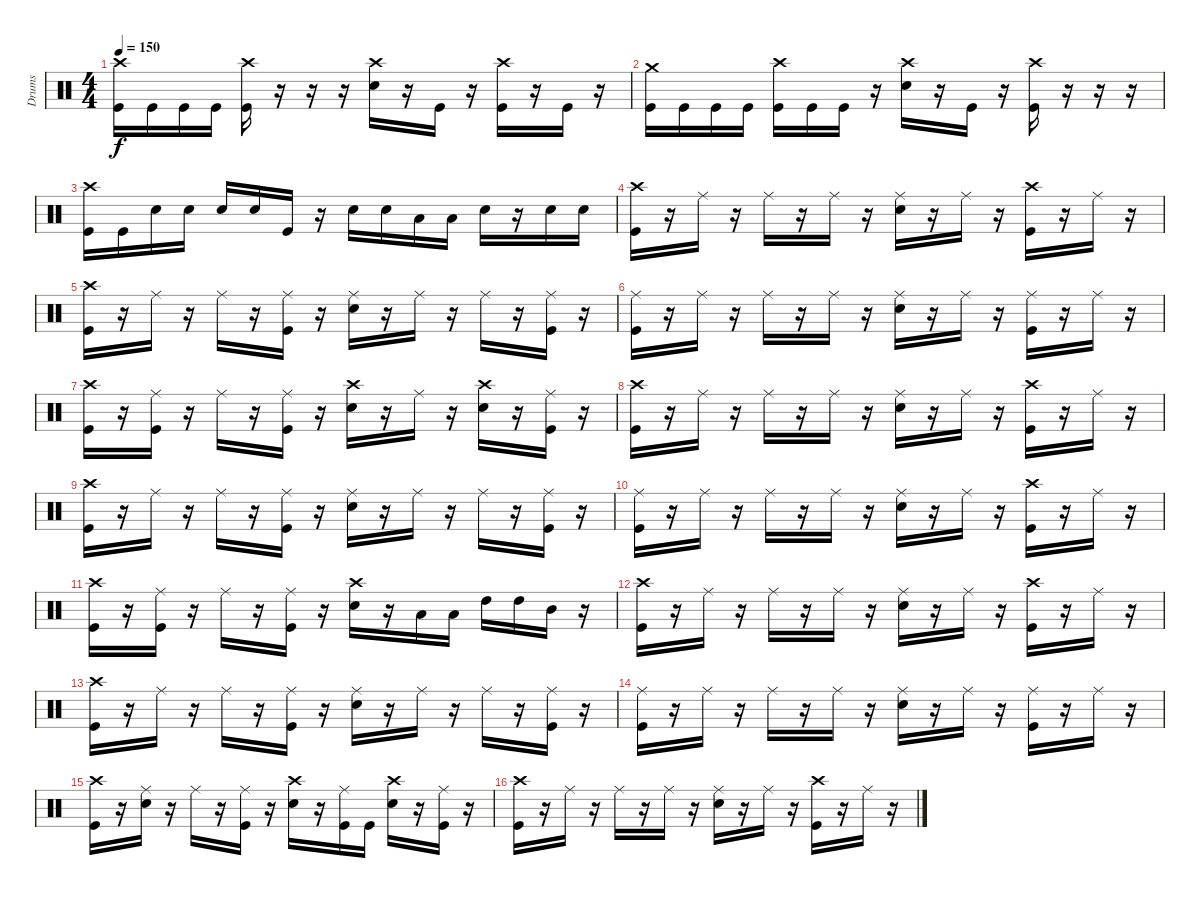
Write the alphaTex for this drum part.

\track ("Drums" "Drums") {instrument percussion}
\staff {score}
\articulation defaults
\ts (4 4)
\tempo 150
\clef neutral
\ks c
("Crash high (hit)" "Kick (hit)").16{dy f} "Kick (hit)".16 "Kick (hit)".16 "Kick (hit)".16 ("Crash high (hit)" "Kick (hit)").16 r.16 r.16 r.16 ("Crash high (hit)" "Electric Snare (hit)").16 r.16 "Kick (hit)".16 r.16 ("Crash high (hit)" "Kick (hit)").16 r.16 "Kick (hit)".16 r.16 |
("Crash medium (hit)" "Kick (hit)").16 "Kick (hit)".16 "Kick (hit)".16 "Kick (hit)".16 ("Crash high (hit)" "Kick (hit)").16 "Kick (hit)".16 "Kick (hit)".16 r.16 ("Crash high (hit)" "Electric Snare (hit)").16 r.16 "Kick (hit)".16 r.16 ("Crash high (hit)" "Kick (hit)").16 r.16 r.16 r.16 |
("Crash high (hit)" "Kick (hit)").16 "Kick (hit)".16 "Electric Snare (hit)".16 "Electric Snare (hit)".16 "Electric Snare (hit)".16 "Electric Snare (hit)".16 "Kick (hit)".16 r.16 "Electric Snare (hit)".16 "Electric Snare (hit)".16 "Low Tom (hit)".16 "Low Tom (hit)".16 "Electric Snare (hit)".16 r.16 "Electric Snare (hit)".16 "Electric Snare (hit)".16 |
("Crash high (hit)" "Kick (hit)").16 r.16 "Ride (middle)".16 r.16 "Ride (middle)".16 r.16 "Ride (middle)".16 r.16 ("Ride (middle)" "Electric Snare (hit)").16 r.16 "Ride (middle)".16 r.16 ("Crash high (hit)" "Kick (hit)").16 r.16 "Ride (middle)".16 r.16 |
("Crash high (hit)" "Kick (hit)").16 r.16 "Ride (middle)".16 r.16 "Ride (middle)".16 r.16 ("Ride (middle)" "Kick (hit)").16 r.16 ("Ride (middle)" "Electric Snare (hit)").16 r.16 "Ride (middle)".16 r.16 "Ride (middle)".16 r.16 ("Ride (middle)" "Kick (hit)").16 r.16 |
("Ride (middle)" "Kick (hit)").16 r.16 "Ride (middle)".16 r.16 "Ride (middle)".16 r.16 "Ride (middle)".16 r.16 ("Ride (middle)" "Electric Snare (hit)").16 r.16 "Ride (middle)".16 r.16 ("Ride (middle)" "Kick (hit)").16 r.16 "Ride (middle)".16 r.16 |
("Crash high (hit)" "Kick (hit)").16 r.16 ("Ride (middle)" "Kick (hit)").16 r.16 "Ride (middle)".16 r.16 ("Ride (middle)" "Kick (hit)").16 r.16 ("Crash high (hit)" "Electric Snare (hit)").16 r.16 "Ride (middle)".16 r.16 ("Crash high (hit)" "Electric Snare (hit)").16 r.16 ("Ride (middle)" "Kick (hit)").16 r.16 |
("Crash high (hit)" "Kick (hit)").16 r.16 "Ride (middle)".16 r.16 "Ride (middle)".16 r.16 "Ride (middle)".16 r.16 ("Ride (middle)" "Electric Snare (hit)").16 r.16 "Ride (middle)".16 r.16 ("Crash high (hit)" "Kick (hit)").16 r.16 "Ride (middle)".16 r.16 |
("Crash high (hit)" "Kick (hit)").16 r.16 "Ride (middle)".16 r.16 "Ride (middle)".16 r.16 ("Ride (middle)" "Kick (hit)").16 r.16 ("Ride (middle)" "Electric Snare (hit)").16 r.16 "Ride (middle)".16 r.16 "Ride (middle)".16 r.16 ("Ride (middle)" "Kick (hit)").16 r.16 |
("Ride (middle)" "Kick (hit)").16 r.16 "Ride (middle)".16 r.16 "Ride (middle)".16 r.16 "Ride (middle)".16 r.16 ("Ride (middle)" "Electric Snare (hit)").16 r.16 "Ride (middle)".16 r.16 ("Crash high (hit)" "Kick (hit)").16 r.16 "Ride (middle)".16 r.16 |
("Crash high (hit)" "Kick (hit)").16 r.16 ("Ride (middle)" "Kick (hit)").16 r.16 "Ride (middle)".16 r.16 ("Ride (middle)" "Kick (hit)").16 r.16 ("Crash high (hit)" "Electric Snare (hit)").16 r.16 "Low Tom (hit)".16 "Low Tom (hit)".16 "High Tom (hit)".16 "High Tom (hit)".16 "Mid Tom (hit)".16 r.16 |
("Crash high (hit)" "Kick (hit)").16 r.16 "Ride (middle)".16 r.16 "Ride (middle)".16 r.16 "Ride (middle)".16 r.16 ("Ride (middle)" "Electric Snare (hit)").16 r.16 "Ride (middle)".16 r.16 ("Crash high (hit)" "Kick (hit)").16 r.16 "Ride (middle)".16 r.16 |
("Crash high (hit)" "Kick (hit)").16 r.16 "Ride (middle)".16 r.16 "Ride (middle)".16 r.16 ("Ride (middle)" "Kick (hit)").16 r.16 ("Ride (middle)" "Electric Snare (hit)").16 r.16 "Ride (middle)".16 r.16 "Ride (middle)".16 r.16 ("Ride (middle)" "Kick (hit)").16 r.16 |
("Ride (middle)" "Kick (hit)").16 r.16 "Ride (middle)".16 r.16 "Ride (middle)".16 r.16 "Ride (middle)".16 r.16 ("Ride (middle)" "Electric Snare (hit)").16 r.16 "Ride (middle)".16 r.16 ("Ride (middle)" "Kick (hit)").16 r.16 "Ride (middle)".16 r.16 |
("Crash high (hit)" "Kick (hit)").16 r.16 ("Ride (middle)" "Electric Snare (hit)").16 r.16 "Ride (middle)".16 r.16 ("Ride (middle)" "Kick (hit)").16 r.16 ("Crash high (hit)" "Electric Snare (hit)").16 r.16 ("Ride (middle)" "Kick (hit)").16 "Kick (hit)".16 ("Crash high (hit)" "Electric Snare (hit)").16 r.16 ("Ride (middle)" "Kick (hit)").16 r.16 |
("Crash high (hit)" "Kick (hit)").16 r.16 "Ride (middle)".16 r.16 "Ride (middle)".16 r.16 "Ride (middle)".16 r.16 ("Ride (middle)" "Electric Snare (hit)").16 r.16 "Ride (middle)".16 r.16 ("Crash high (hit)" "Kick (hit)").16 r.16 "Ride (middle)".16 r.16
